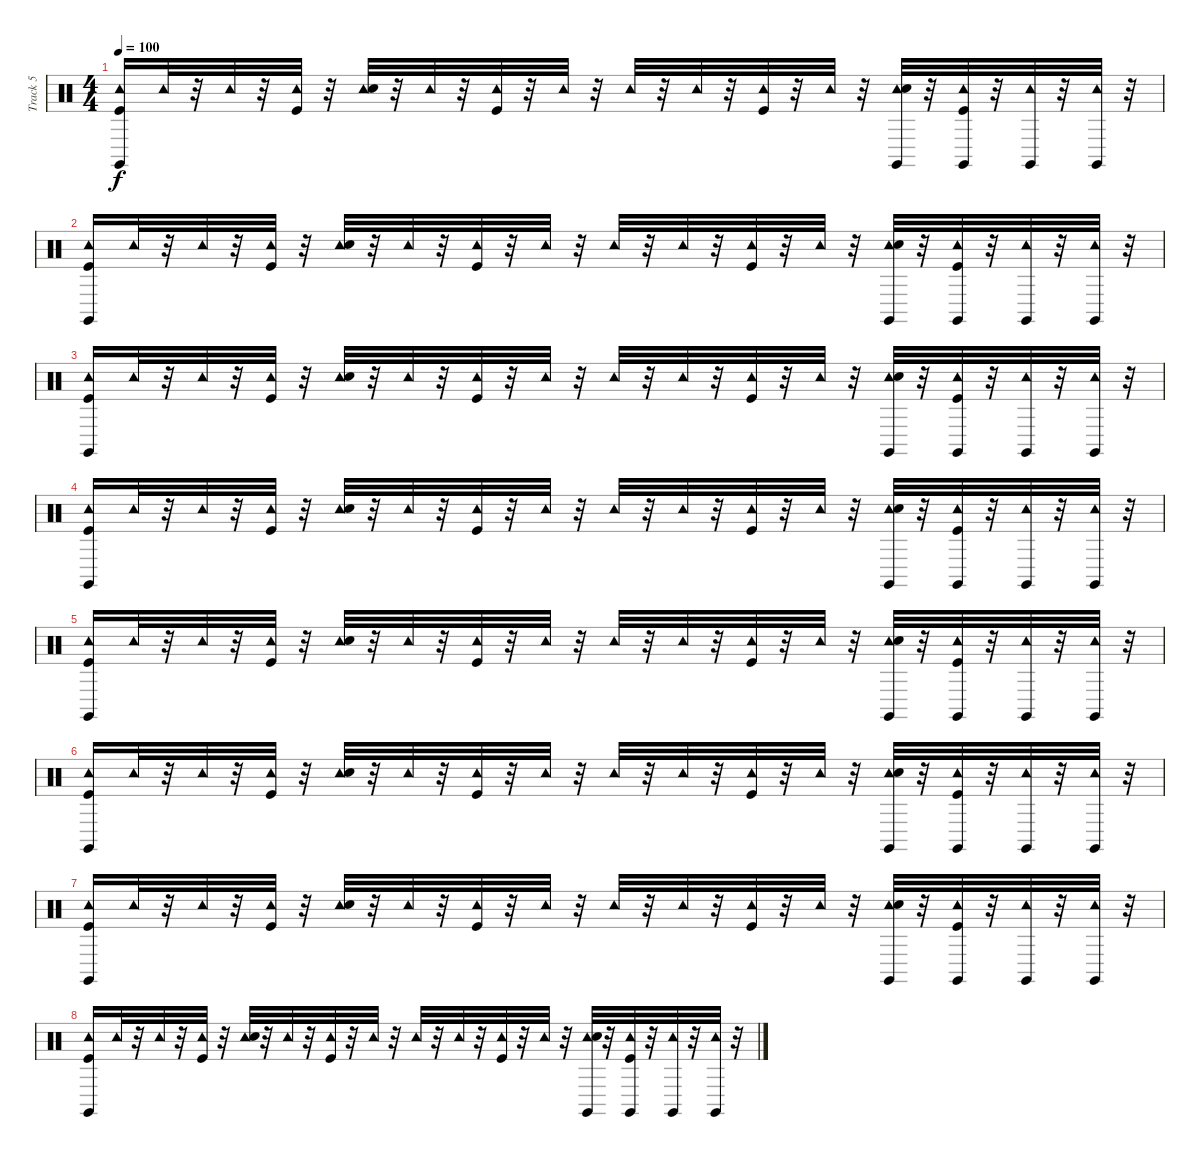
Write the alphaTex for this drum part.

\track ("Track 5" "Track 5") {instrument percussion}
\staff {score}
\articulation defaults
\ts (4 4)
\tempo 100
\clef neutral
\ks c
("Tambourine (hit)" "Claves (hit)" "Kick (hit)").16{dy f} "Tambourine (hit)".32 r.32 "Tambourine (hit)".32 r.32 ("Tambourine (hit)" "Kick (hit)").32 r.32 ("Tambourine (hit)" "Snare (hit) 2").32 r.32 "Tambourine (hit)".32 r.32 ("Tambourine (hit)" "Kick (hit)").32 r.32 "Tambourine (hit)".32 r.32 "Tambourine (hit)".32 r.32 "Tambourine (hit)".32 r.32 ("Tambourine (hit)" "Kick (hit)").32 r.32 "Tambourine (hit)".32 r.32 ("Tambourine (hit)" "Claves (hit)" "Snare (hit) 2").32 r.32 ("Tambourine (hit)" "Claves (hit)" "Kick (hit)").32 r.32 ("Tambourine (hit)" "Claves (hit)").32 r.32 ("Tambourine (hit)" "Claves (hit)").32 r.32 |
("Tambourine (hit)" "Claves (hit)" "Kick (hit)").16 "Tambourine (hit)".32 r.32 "Tambourine (hit)".32 r.32 ("Tambourine (hit)" "Kick (hit)").32 r.32 ("Tambourine (hit)" "Snare (hit) 2").32 r.32 "Tambourine (hit)".32 r.32 ("Tambourine (hit)" "Kick (hit)").32 r.32 "Tambourine (hit)".32 r.32 "Tambourine (hit)".32 r.32 "Tambourine (hit)".32 r.32 ("Tambourine (hit)" "Kick (hit)").32 r.32 "Tambourine (hit)".32 r.32 ("Tambourine (hit)" "Claves (hit)" "Snare (hit) 2").32 r.32 ("Tambourine (hit)" "Claves (hit)" "Kick (hit)").32 r.32 ("Tambourine (hit)" "Claves (hit)").32 r.32 ("Tambourine (hit)" "Claves (hit)").32 r.32 |
("Tambourine (hit)" "Claves (hit)" "Kick (hit)").16 "Tambourine (hit)".32 r.32 "Tambourine (hit)".32 r.32 ("Tambourine (hit)" "Kick (hit)").32 r.32 ("Tambourine (hit)" "Snare (hit) 2").32 r.32 "Tambourine (hit)".32 r.32 ("Tambourine (hit)" "Kick (hit)").32 r.32 "Tambourine (hit)".32 r.32 "Tambourine (hit)".32 r.32 "Tambourine (hit)".32 r.32 ("Tambourine (hit)" "Kick (hit)").32 r.32 "Tambourine (hit)".32 r.32 ("Tambourine (hit)" "Claves (hit)" "Snare (hit) 2").32 r.32 ("Tambourine (hit)" "Claves (hit)" "Kick (hit)").32 r.32 ("Tambourine (hit)" "Claves (hit)").32 r.32 ("Tambourine (hit)" "Claves (hit)").32 r.32 |
("Tambourine (hit)" "Claves (hit)" "Kick (hit)").16 "Tambourine (hit)".32 r.32 "Tambourine (hit)".32 r.32 ("Tambourine (hit)" "Kick (hit)").32 r.32 ("Tambourine (hit)" "Snare (hit) 2").32 r.32 "Tambourine (hit)".32 r.32 ("Tambourine (hit)" "Kick (hit)").32 r.32 "Tambourine (hit)".32 r.32 "Tambourine (hit)".32 r.32 "Tambourine (hit)".32 r.32 ("Tambourine (hit)" "Kick (hit)").32 r.32 "Tambourine (hit)".32 r.32 ("Tambourine (hit)" "Claves (hit)" "Snare (hit) 2").32 r.32 ("Tambourine (hit)" "Claves (hit)" "Kick (hit)").32 r.32 ("Tambourine (hit)" "Claves (hit)").32 r.32 ("Tambourine (hit)" "Claves (hit)").32 r.32 |
("Tambourine (hit)" "Claves (hit)" "Kick (hit)").16 "Tambourine (hit)".32 r.32 "Tambourine (hit)".32 r.32 ("Tambourine (hit)" "Kick (hit)").32 r.32 ("Tambourine (hit)" "Snare (hit) 2").32 r.32 "Tambourine (hit)".32 r.32 ("Tambourine (hit)" "Kick (hit)").32 r.32 "Tambourine (hit)".32 r.32 "Tambourine (hit)".32 r.32 "Tambourine (hit)".32 r.32 ("Tambourine (hit)" "Kick (hit)").32 r.32 "Tambourine (hit)".32 r.32 ("Tambourine (hit)" "Claves (hit)" "Snare (hit) 2").32 r.32 ("Tambourine (hit)" "Claves (hit)" "Kick (hit)").32 r.32 ("Tambourine (hit)" "Claves (hit)").32 r.32 ("Tambourine (hit)" "Claves (hit)").32 r.32 |
("Tambourine (hit)" "Claves (hit)" "Kick (hit)").16 "Tambourine (hit)".32 r.32 "Tambourine (hit)".32 r.32 ("Tambourine (hit)" "Kick (hit)").32 r.32 ("Tambourine (hit)" "Snare (hit) 2").32 r.32 "Tambourine (hit)".32 r.32 ("Tambourine (hit)" "Kick (hit)").32 r.32 "Tambourine (hit)".32 r.32 "Tambourine (hit)".32 r.32 "Tambourine (hit)".32 r.32 ("Tambourine (hit)" "Kick (hit)").32 r.32 "Tambourine (hit)".32 r.32 ("Tambourine (hit)" "Claves (hit)" "Snare (hit) 2").32 r.32 ("Tambourine (hit)" "Claves (hit)" "Kick (hit)").32 r.32 ("Tambourine (hit)" "Claves (hit)").32 r.32 ("Tambourine (hit)" "Claves (hit)").32 r.32 |
("Tambourine (hit)" "Claves (hit)" "Kick (hit)").16 "Tambourine (hit)".32 r.32 "Tambourine (hit)".32 r.32 ("Tambourine (hit)" "Kick (hit)").32 r.32 ("Tambourine (hit)" "Snare (hit) 2").32 r.32 "Tambourine (hit)".32 r.32 ("Tambourine (hit)" "Kick (hit)").32 r.32 "Tambourine (hit)".32 r.32 "Tambourine (hit)".32 r.32 "Tambourine (hit)".32 r.32 ("Tambourine (hit)" "Kick (hit)").32 r.32 "Tambourine (hit)".32 r.32 ("Tambourine (hit)" "Claves (hit)" "Snare (hit) 2").32 r.32 ("Tambourine (hit)" "Claves (hit)" "Kick (hit)").32 r.32 ("Tambourine (hit)" "Claves (hit)").32 r.32 ("Tambourine (hit)" "Claves (hit)").32 r.32 |
("Tambourine (hit)" "Claves (hit)" "Kick (hit)").16 "Tambourine (hit)".32 r.32 "Tambourine (hit)".32 r.32 ("Tambourine (hit)" "Kick (hit)").32 r.32 ("Tambourine (hit)" "Snare (hit) 2").32 r.32 "Tambourine (hit)".32 r.32 ("Tambourine (hit)" "Kick (hit)").32 r.32 "Tambourine (hit)".32 r.32 "Tambourine (hit)".32 r.32 "Tambourine (hit)".32 r.32 ("Tambourine (hit)" "Kick (hit)").32 r.32 "Tambourine (hit)".32 r.32 ("Tambourine (hit)" "Claves (hit)" "Snare (hit) 2").32 r.32 ("Tambourine (hit)" "Claves (hit)" "Kick (hit)").32 r.32 ("Tambourine (hit)" "Claves (hit)").32 r.32 ("Tambourine (hit)" "Claves (hit)").32 r.32
